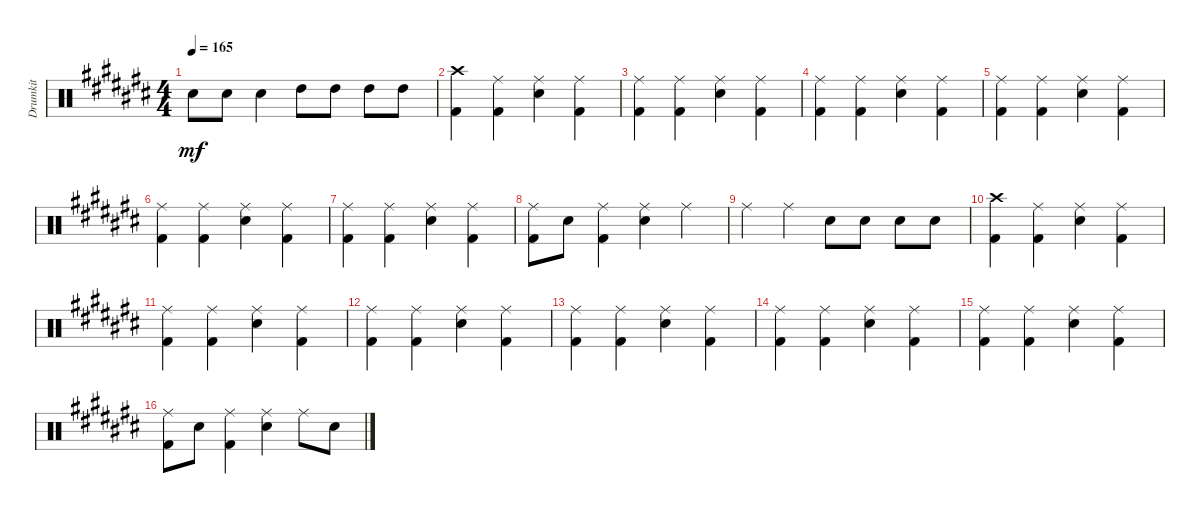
\track ("Drumkit" "Drumkit") {instrument percussion}
\staff {score}
\articulation defaults
\ts (4 4)
\tempo 165
\clef neutral
\ks c# "Snare (hit) 2".8{dy mf} "Snare (hit) 2".8 "Snare (hit) 2".4 "High Tom (hit)".8 "High Tom (hit)".8 "High Tom (hit)".8 "High Tom (hit)".8
|
("Kick (hit) 2" "Crash high (hit)").4 ("Kick (hit) 2" "Ride (middle)").4 ("Snare (hit) 2" "Ride (middle)").4 ("Kick (hit) 2" "Ride (middle)").4 |
("Kick (hit) 2" "Ride (middle)").4 ("Kick (hit) 2" "Ride (middle)").4 ("Snare (hit) 2" "Ride (middle)").4 ("Kick (hit) 2" "Ride (middle)").4 |
("Kick (hit) 2" "Ride (middle)").4 ("Kick (hit) 2" "Ride (middle)").4 ("Snare (hit) 2" "Ride (middle)").4 ("Kick (hit) 2" "Ride (middle)").4 |
("Kick (hit) 2" "Ride (middle)").4 ("Kick (hit) 2" "Ride (middle)").4 ("Snare (hit) 2" "Ride (middle)").4 ("Kick (hit) 2" "Ride (middle)").4 |
("Kick (hit) 2" "Ride (middle)").4 ("Kick (hit) 2" "Ride (middle)").4 ("Snare (hit) 2" "Ride (middle)").4 ("Kick (hit) 2" "Ride (middle)").4 |
("Kick (hit) 2" "Ride (middle)").4 ("Kick (hit) 2" "Ride (middle)").4 ("Snare (hit) 2" "Ride (middle)").4 ("Kick (hit) 2" "Ride (middle)").4 |
("Kick (hit) 2" "Ride (middle)").8 "Snare (hit) 2".8 ("Kick (hit) 2" "Ride (middle)").4 ("Snare (hit) 2" "Ride (middle)").4 "Ride (middle)".4 |
"Ride (middle)".4 "Ride (middle)".4 "Snare (hit) 2".8 "Snare (hit) 2".8 "Snare (hit) 2".8 "Snare (hit) 2".8 |
("Kick (hit) 2" "Crash high (hit)").4 ("Kick (hit) 2" "Ride (middle)").4 ("Snare (hit) 2" "Ride (middle)").4 ("Kick (hit) 2" "Ride (middle)").4 |
("Kick (hit) 2" "Ride (middle)").4 ("Kick (hit) 2" "Ride (middle)").4 ("Snare (hit) 2" "Ride (middle)").4 ("Kick (hit) 2" "Ride (middle)").4 |
("Kick (hit) 2" "Ride (middle)").4 ("Kick (hit) 2" "Ride (middle)").4 ("Snare (hit) 2" "Ride (middle)").4 ("Kick (hit) 2" "Ride (middle)").4 |
("Kick (hit) 2" "Ride (middle)").4 ("Kick (hit) 2" "Ride (middle)").4 ("Snare (hit) 2" "Ride (middle)").4 ("Kick (hit) 2" "Ride (middle)").4 |
("Kick (hit) 2" "Ride (middle)").4 ("Kick (hit) 2" "Ride (middle)").4 ("Snare (hit) 2" "Ride (middle)").4 ("Kick (hit) 2" "Ride (middle)").4 |
("Kick (hit) 2" "Ride (middle)").4 ("Kick (hit) 2" "Ride (middle)").4 ("Snare (hit) 2" "Ride (middle)").4 ("Kick (hit) 2" "Ride (middle)").4 |
("Kick (hit) 2" "Ride (middle)").8 "Snare (hit) 2".8 ("Kick (hit) 2" "Ride (middle)").4 ("Snare (hit) 2" "Ride (middle)").4 "Ride (middle)".8 "Snare (hit) 2".8
